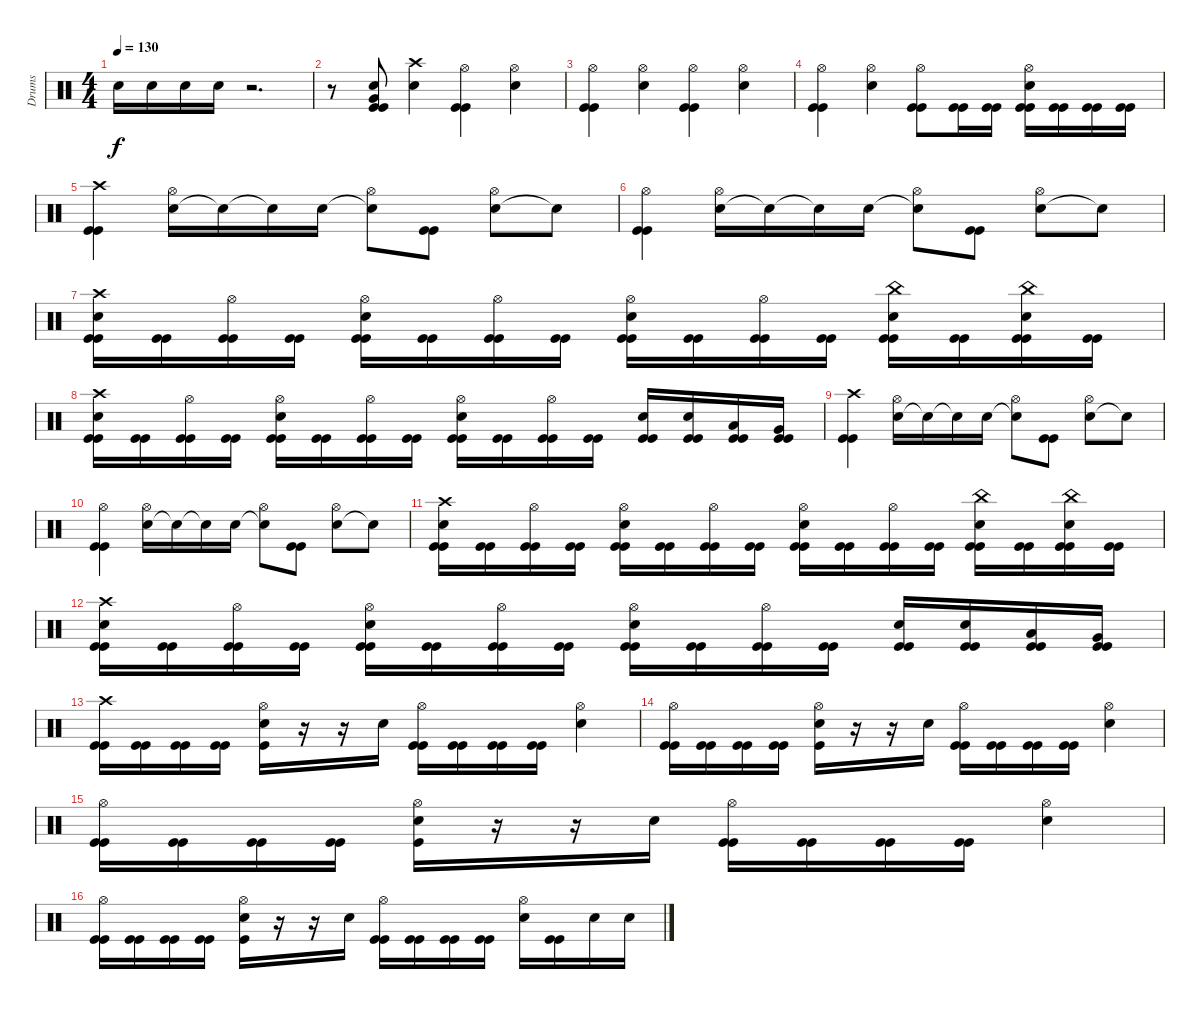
\track ("Drums" "Drums") {instrument percussion}
\staff {score}
\articulation defaults
\ts (4 4)
\tempo 130
\clef neutral
\ks c "Snare (hit) 2".16{dy f} "Snare (hit) 2".16 "Snare (hit) 2".16 "Snare (hit) 2".16
r.2{d} |
r.8 ("Kick (hit)" "Kick (hit)" "Very Low Tom (hit)" "Snare (hit) 2").8 ("Snare (hit) 2" "Crash high (hit)").4 ("Kick (hit)" "Kick (hit)" "Hi-Hat (open)").4 ("Snare (hit) 2" "Hi-Hat (open)").4 |
("Kick (hit)" "Kick (hit)" "Hi-Hat (open)").4 ("Snare (hit) 2" "Hi-Hat (open)").4 ("Kick (hit)" "Kick (hit)" "Hi-Hat (open)").4 ("Snare (hit) 2" "Hi-Hat (open)").4 |
("Kick (hit)" "Kick (hit)" "Hi-Hat (open)").4 ("Snare (hit) 2" "Hi-Hat (open)").4 ("Kick (hit)" "Kick (hit)" "Hi-Hat (open)").8 ("Kick (hit)" "Kick (hit)").16 ("Kick (hit)" "Kick (hit)").16 ("Kick (hit)" "Kick (hit)" "Snare (hit) 2" "Hi-Hat (open)").16 ("Kick (hit)" "Kick (hit)").16 ("Kick (hit)" "Kick (hit)").16 ("Kick (hit)" "Kick (hit)").16 |
("Kick (hit)" "Kick (hit)" "Crash high (hit)").4 ("Snare (hit) 2" "Hi-Hat (open)").16 "Snare (hit)"{t}.16 "Snare (hit)"{t}.16 "Snare (hit) 2".16 ("Snare (hit)"{t} "Hi-Hat (open)").8 ("Kick (hit)" "Kick (hit)").8 ("Snare (hit) 2" "Hi-Hat (open)").8 "Snare (hit)"{t}.8 |
("Kick (hit)" "Kick (hit)" "Hi-Hat (open)").4 ("Snare (hit) 2" "Hi-Hat (open)").16 "Snare (hit)"{t}.16 "Snare (hit)"{t}.16 "Snare (hit) 2".16 ("Snare (hit)"{t} "Hi-Hat (open)").8 ("Kick (hit)" "Kick (hit)").8 ("Snare (hit) 2" "Hi-Hat (open)").8 "Snare (hit)"{t}.8 |
("Kick (hit)" "Kick (hit)" "Snare (hit) 2" "Crash high (hit)").16 ("Kick (hit)" "Kick (hit)").16 ("Kick (hit)" "Kick (hit)" "Hi-Hat (open)").16 ("Kick (hit)" "Kick (hit)").16 ("Kick (hit)" "Kick (hit)" "Snare (hit) 2" "Hi-Hat (open)").16 ("Kick (hit)" "Kick (hit)").16 ("Kick (hit)" "Kick (hit)" "Hi-Hat (open)").16 ("Kick (hit)" "Kick (hit)").16 ("Kick (hit)" "Kick (hit)" "Snare (hit) 2" "Hi-Hat (open)").16 ("Kick (hit)" "Kick (hit)").16 ("Kick (hit)" "Kick (hit)" "Hi-Hat (open)").16 ("Kick (hit)" "Kick (hit)").16 ("Kick (hit)" "Kick (hit)" "Snare (hit) 2" "China (hit)").16 ("Kick (hit)" "Kick (hit)").16 ("Kick (hit)" "Kick (hit)" "Snare (hit) 2" "China (hit)").16 ("Kick (hit)" "Kick (hit)").16 |
("Kick (hit)" "Kick (hit)" "Snare (hit) 2" "Crash high (hit)").16 ("Kick (hit)" "Kick (hit)").16 ("Kick (hit)" "Kick (hit)" "Hi-Hat (open)").16 ("Kick (hit)" "Kick (hit)").16 ("Kick (hit)" "Kick (hit)" "Snare (hit) 2" "Hi-Hat (open)").16 ("Kick (hit)" "Kick (hit)").16 ("Kick (hit)" "Kick (hit)" "Hi-Hat (open)").16 ("Kick (hit)" "Kick (hit)").16 ("Kick (hit)" "Kick (hit)" "Snare (hit) 2" "Hi-Hat (open)").16 ("Kick (hit)" "Kick (hit)").16 ("Kick (hit)" "Kick (hit)" "Hi-Hat (open)").16 ("Kick (hit)" "Kick (hit)").16 ("Kick (hit)" "Kick (hit)" "Snare (hit) 2").16 ("Kick (hit)" "Kick (hit)" "Snare (hit) 2").16 ("Kick (hit)" "Kick (hit)" "Low Tom (hit)").16 ("Kick (hit)" "Kick (hit)" "Very Low Tom (hit)").16 |
("Kick (hit)" "Kick (hit)" "Crash high (hit)").4 ("Snare (hit) 2" "Hi-Hat (open)").16 "Snare (hit)"{t}.16 "Snare (hit)"{t}.16 "Snare (hit) 2".16 ("Snare (hit)"{t} "Hi-Hat (open)").8 ("Kick (hit)" "Kick (hit)").8 ("Snare (hit) 2" "Hi-Hat (open)").8 "Snare (hit)"{t}.8 |
("Kick (hit)" "Kick (hit)" "Hi-Hat (open)").4 ("Snare (hit) 2" "Hi-Hat (open)").16 "Snare (hit)"{t}.16 "Snare (hit)"{t}.16 "Snare (hit) 2".16 ("Snare (hit)"{t} "Hi-Hat (open)").8 ("Kick (hit)" "Kick (hit)").8 ("Snare (hit) 2" "Hi-Hat (open)").8 "Snare (hit)"{t}.8 |
("Kick (hit)" "Kick (hit)" "Snare (hit) 2" "Crash high (hit)").16 ("Kick (hit)" "Kick (hit)").16 ("Kick (hit)" "Kick (hit)" "Hi-Hat (open)").16 ("Kick (hit)" "Kick (hit)").16 ("Kick (hit)" "Kick (hit)" "Snare (hit) 2" "Hi-Hat (open)").16 ("Kick (hit)" "Kick (hit)").16 ("Kick (hit)" "Kick (hit)" "Hi-Hat (open)").16 ("Kick (hit)" "Kick (hit)").16 ("Kick (hit)" "Kick (hit)" "Snare (hit) 2" "Hi-Hat (open)").16 ("Kick (hit)" "Kick (hit)").16 ("Kick (hit)" "Kick (hit)" "Hi-Hat (open)").16 ("Kick (hit)" "Kick (hit)").16 ("Kick (hit)" "Kick (hit)" "Snare (hit) 2" "China (hit)").16 ("Kick (hit)" "Kick (hit)").16 ("Kick (hit)" "Kick (hit)" "Snare (hit) 2" "China (hit)").16 ("Kick (hit)" "Kick (hit)").16 |
("Kick (hit)" "Kick (hit)" "Snare (hit) 2" "Crash high (hit)").16 ("Kick (hit)" "Kick (hit)").16 ("Kick (hit)" "Kick (hit)" "Hi-Hat (open)").16 ("Kick (hit)" "Kick (hit)").16 ("Kick (hit)" "Kick (hit)" "Snare (hit) 2" "Hi-Hat (open)").16 ("Kick (hit)" "Kick (hit)").16 ("Kick (hit)" "Kick (hit)" "Hi-Hat (open)").16 ("Kick (hit)" "Kick (hit)").16 ("Kick (hit)" "Kick (hit)" "Snare (hit) 2" "Hi-Hat (open)").16 ("Kick (hit)" "Kick (hit)").16 ("Kick (hit)" "Kick (hit)" "Hi-Hat (open)").16 ("Kick (hit)" "Kick (hit)").16 ("Kick (hit)" "Kick (hit)" "Snare (hit) 2").16 ("Kick (hit)" "Kick (hit)" "Snare (hit) 2").16 ("Kick (hit)" "Kick (hit)" "Low Tom (hit)").16 ("Kick (hit)" "Kick (hit)" "Very Low Tom (hit)").16 |
("Kick (hit)" "Kick (hit)" "Crash high (hit)").16 ("Kick (hit)" "Kick (hit)").16 ("Kick (hit)" "Kick (hit)").16 ("Kick (hit)" "Kick (hit)").16 ("Kick (hit)" "Snare (hit) 2" "Hi-Hat (open)").16 r.16 r.16 "Snare (hit) 2".16 ("Kick (hit)" "Kick (hit)" "Hi-Hat (open)").16 ("Kick (hit)" "Kick (hit)").16 ("Kick (hit)" "Kick (hit)").16 ("Kick (hit)" "Kick (hit)").16 ("Snare (hit) 2" "Hi-Hat (open)").4 |
("Kick (hit)" "Kick (hit)" "Hi-Hat (open)").16 ("Kick (hit)" "Kick (hit)").16 ("Kick (hit)" "Kick (hit)").16 ("Kick (hit)" "Kick (hit)").16 ("Kick (hit)" "Snare (hit) 2" "Hi-Hat (open)").16 r.16 r.16 "Snare (hit) 2".16 ("Kick (hit)" "Kick (hit)" "Hi-Hat (open)").16 ("Kick (hit)" "Kick (hit)").16 ("Kick (hit)" "Kick (hit)").16 ("Kick (hit)" "Kick (hit)").16 ("Snare (hit) 2" "Hi-Hat (open)").4 |
("Kick (hit)" "Kick (hit)" "Hi-Hat (open)").16 ("Kick (hit)" "Kick (hit)").16 ("Kick (hit)" "Kick (hit)").16 ("Kick (hit)" "Kick (hit)").16 ("Kick (hit)" "Snare (hit) 2" "Hi-Hat (open)").16 r.16 r.16 "Snare (hit) 2".16 ("Kick (hit)" "Kick (hit)" "Hi-Hat (open)").16 ("Kick (hit)" "Kick (hit)").16 ("Kick (hit)" "Kick (hit)").16 ("Kick (hit)" "Kick (hit)").16 ("Snare (hit) 2" "Hi-Hat (open)").4 |
("Kick (hit)" "Kick (hit)" "Hi-Hat (open)").16 ("Kick (hit)" "Kick (hit)").16 ("Kick (hit)" "Kick (hit)").16 ("Kick (hit)" "Kick (hit)").16 ("Kick (hit)" "Snare (hit) 2" "Hi-Hat (open)").16 r.16 r.16 "Snare (hit) 2".16 ("Kick (hit)" "Kick (hit)" "Hi-Hat (open)").16 ("Kick (hit)" "Kick (hit)").16 ("Kick (hit)" "Kick (hit)").16 ("Kick (hit)" "Kick (hit)").16 ("Snare (hit) 2" "Hi-Hat (open)").16 ("Kick (hit)" "Kick (hit)").16 "Snare (hit) 2".16 "Snare (hit) 2".16
